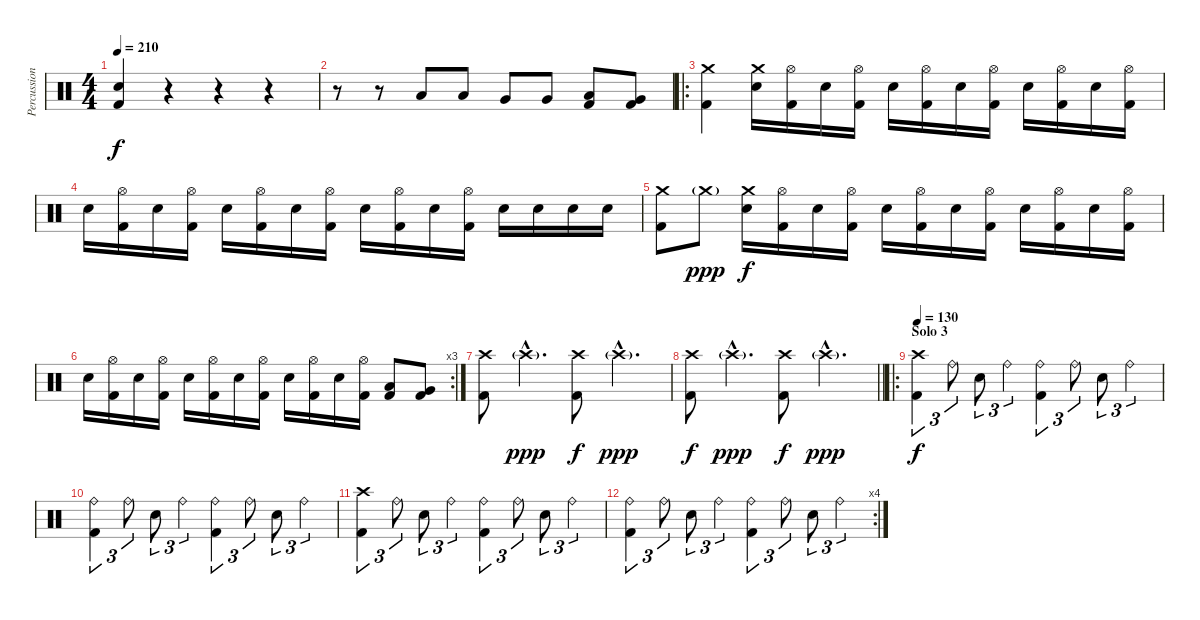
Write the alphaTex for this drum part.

\track ("Percussion" "Percussion") {instrument percussion}
\staff {score}
\articulation defaults
\ts (4 4)
\tempo 210
\clef neutral
\ks c
("Electric Snare (hit)" "Kick (hit) 2").4{dy f} r.4 r.4 r.4 |
r.8 r.8 "Low Tom (hit)".8 "Low Tom (hit)".8 "Very Low Tom (hit)".8 "Very Low Tom (hit)".8 ("Low Tom (hit)" "Kick (hit) 2").8 ("Very Low Tom (hit)" "Kick (hit) 2").8 |
\ro
("Crash medium (hit)" "Kick (hit) 2").4 ("Crash medium (hit)" "Electric Snare (hit)").16 ("Hi-Hat (open)" "Kick (hit) 2").16 "Electric Snare (hit)".16 ("Hi-Hat (open)" "Kick (hit) 2").16 "Electric Snare (hit)".16 ("Hi-Hat (open)" "Kick (hit) 2").16 "Electric Snare (hit)".16 ("Hi-Hat (open)" "Kick (hit) 2").16 "Electric Snare (hit)".16 ("Hi-Hat (open)" "Kick (hit) 2").16 "Electric Snare (hit)".16 ("Hi-Hat (open)" "Kick (hit) 2").16 |
"Electric Snare (hit)".16 ("Hi-Hat (open)" "Kick (hit) 2").16 "Electric Snare (hit)".16 ("Hi-Hat (open)" "Kick (hit) 2").16 "Electric Snare (hit)".16 ("Hi-Hat (open)" "Kick (hit) 2").16 "Electric Snare (hit)".16 ("Hi-Hat (open)" "Kick (hit) 2").16 "Electric Snare (hit)".16 ("Hi-Hat (open)" "Kick (hit) 2").16 "Electric Snare (hit)".16 ("Hi-Hat (open)" "Kick (hit) 2").16 "Snare (hit) 2".16 "Snare (hit) 2".16 "Snare (hit) 2".16 "Snare (hit) 2".16 |
("Crash medium (hit)" "Kick (hit) 2").8 "Crash medium (hit)"{g}.8{dy ppp} ("Crash medium (hit)" "Electric Snare (hit)").16{dy f} ("Hi-Hat (open)" "Kick (hit) 2").16 "Electric Snare (hit)".16 ("Hi-Hat (open)" "Kick (hit) 2").16 "Electric Snare (hit)".16 ("Hi-Hat (open)" "Kick (hit) 2").16 "Electric Snare (hit)".16 ("Hi-Hat (open)" "Kick (hit) 2").16 "Electric Snare (hit)".16 ("Hi-Hat (open)" "Kick (hit) 2").16 "Electric Snare (hit)".16 ("Hi-Hat (open)" "Kick (hit) 2").16 |
\rc 3 "Electric Snare (hit)".16
("Hi-Hat (open)" "Kick (hit) 2").16 "Electric Snare (hit)".16 ("Hi-Hat (open)" "Kick (hit) 2").16 "Electric Snare (hit)".16 ("Hi-Hat (open)" "Kick (hit) 2").16 "Electric Snare (hit)".16 ("Hi-Hat (open)" "Kick (hit) 2").16 "Electric Snare (hit)".16 ("Hi-Hat (open)" "Kick (hit) 2").16 "Electric Snare (hit)".16 ("Hi-Hat (open)" "Kick (hit) 2").16 ("Low Tom (hit)" "Kick (hit) 2").8 ("Very Low Tom (hit)" "Kick (hit) 2").8 |
("Crash high (hit)" "Kick (hit) 2").8 "Crash high (hit)"{g hac}.4{d dy ppp} ("Crash high (hit)" "Kick (hit) 2").8{dy f} "Crash high (hit)"{g hac}.4{d dy ppp} |
\barLineRight lightlight
("Crash high (hit)" "Kick (hit) 2").8{dy f} "Crash high (hit)"{g hac}.4{d dy ppp} ("Crash high (hit)" "Kick (hit) 2").8{dy f} "Crash high (hit)"{g hac}.4{d dy ppp} |
\ro
\section ("" "Solo 3")
\tempo 130
("Crash high (hit)" "Kick (hit) 2").4{tu (3 2) dy f} "Ride (bell)".8{tu (3 2)} "Snare (hit) 2".8{tu (3 2)} "Ride (bell)".4{tu (3 2)} ("Ride (bell)" "Kick (hit) 2").4{tu (3 2)} "Ride (bell)".8{tu (3 2)} "Snare (hit) 2".8{tu (3 2)} "Ride (bell)".4{tu (3 2)} |
("Ride (bell)" "Kick (hit) 2").4{tu (3 2)} "Ride (bell)".8{tu (3 2)} "Snare (hit) 2".8{tu (3 2)} "Ride (bell)".4{tu (3 2)} ("Ride (bell)" "Kick (hit) 2").4{tu (3 2)} "Ride (bell)".8{tu (3 2)} "Snare (hit) 2".8{tu (3 2)} "Ride (bell)".4{tu (3 2)} |
("Crash high (hit)" "Kick (hit) 2").4{tu (3 2)} "Ride (bell)".8{tu (3 2)} "Snare (hit) 2".8{tu (3 2)} "Ride (bell)".4{tu (3 2)} ("Ride (bell)" "Kick (hit) 2").4{tu (3 2)} "Ride (bell)".8{tu (3 2)} "Snare (hit) 2".8{tu (3 2)} "Ride (bell)".4{tu (3 2)} |
\rc 4
("Ride (bell)" "Kick (hit) 2").4{tu (3 2)} "Ride (bell)".8{tu (3 2)} "Snare (hit) 2".8{tu (3 2)} "Ride (bell)".4{tu (3 2)} ("Ride (bell)" "Kick (hit) 2").4{tu (3 2)} "Ride (bell)".8{tu (3 2)} "Snare (hit) 2".8{tu (3 2)} "Ride (bell)".4{tu (3 2)}
